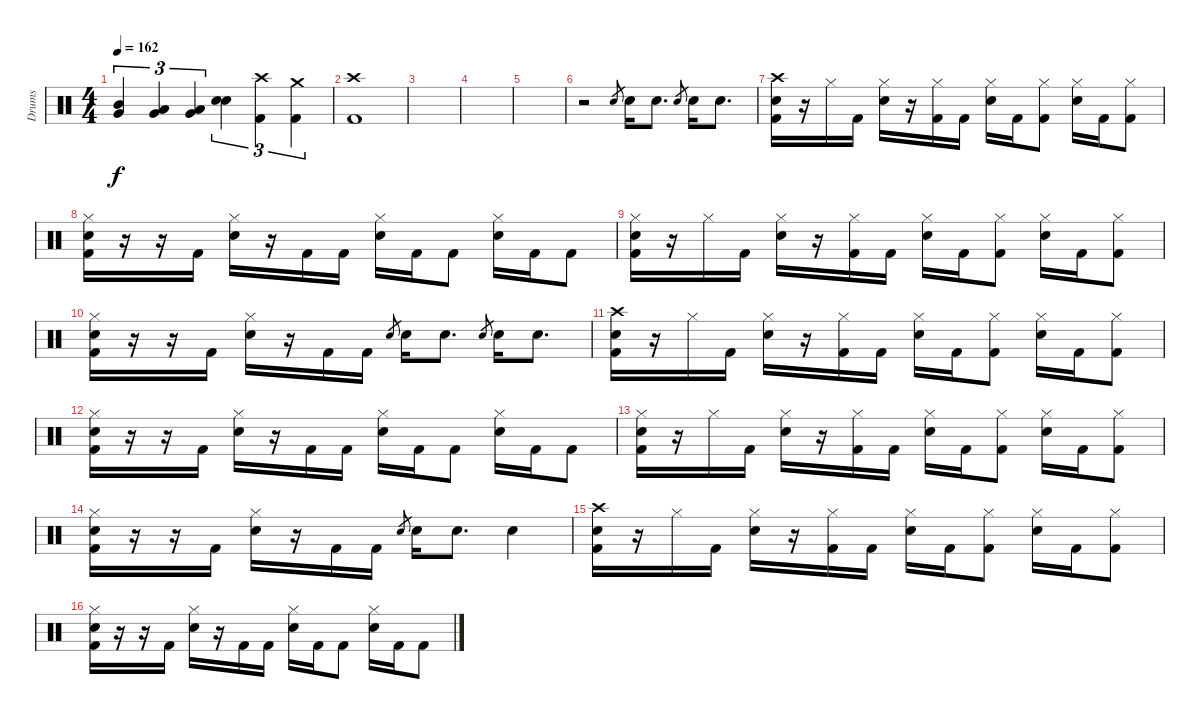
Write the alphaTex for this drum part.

\track ("Drums" "Drums") {instrument percussion}
\staff {score}
\articulation defaults
\ts (4 4)
\tempo 162
\clef neutral
\ks c
("Very Low Tom (hit)" "Mid Tom (hit)").4{tu (3 2) dy f} ("Low Tom (hit)" "Very Low Tom (hit)").4{tu (3 2)} ("Low Floor Tom (hit)" "Very Low Tom (hit)").4{tu (3 2)} ("Snare (hit) 2" "Snare (hit) 2").4{tu (3 2)} ("Crash high (hit)" "Kick (hit) 2").4{tu (3 2)} ("Crash medium (hit)" "Kick (hit) 2").4{tu (3 2)} |
("Crash high (hit)" "Kick (hit) 2").1 |
|
|
|
r.2 "Snare (hit) 2".8{gr} "Snare (hit) 2".16 "Snare (hit) 2".8{d} "Snare (hit) 2".8{gr} "Snare (hit) 2".16 "Snare (hit) 2".8{d} |
("Crash high (hit)" "Snare (hit) 2" "Kick (hit) 2").16 r.16 "Hi-Hat (closed)".16 "Kick (hit) 2".16 ("Hi-Hat (closed)" "Snare (hit) 2").16 r.16 ("Hi-Hat (closed)" "Kick (hit) 2").16 "Kick (hit) 2".16 ("Hi-Hat (closed)" "Snare (hit) 2").16 "Kick (hit) 2".16 ("Hi-Hat (closed)" "Kick (hit) 2").8 ("Hi-Hat (closed)" "Snare (hit) 2").16 "Kick (hit) 2".16 ("Hi-Hat (closed)" "Kick (hit) 2").8 |
("Hi-Hat (closed)" "Snare (hit) 2" "Kick (hit) 2").16 r.16 r.16 "Kick (hit) 2".16 ("Hi-Hat (closed)" "Snare (hit) 2").16 r.16 "Kick (hit) 2".16 "Kick (hit) 2".16 ("Hi-Hat (closed)" "Snare (hit) 2").16 "Kick (hit) 2".16 "Kick (hit) 2".8 ("Hi-Hat (closed)" "Snare (hit) 2").16 "Kick (hit) 2".16 "Kick (hit) 2".8 |
("Hi-Hat (closed)" "Snare (hit) 2" "Kick (hit) 2").16 r.16 "Hi-Hat (closed)".16 "Kick (hit) 2".16 ("Hi-Hat (closed)" "Snare (hit) 2").16 r.16 ("Hi-Hat (closed)" "Kick (hit) 2").16 "Kick (hit) 2".16 ("Hi-Hat (closed)" "Snare (hit) 2").16 "Kick (hit) 2".16 ("Hi-Hat (closed)" "Kick (hit) 2").8 ("Hi-Hat (closed)" "Snare (hit) 2").16 "Kick (hit) 2".16 ("Hi-Hat (closed)" "Kick (hit) 2").8 |
("Hi-Hat (closed)" "Snare (hit) 2" "Kick (hit) 2").16 r.16 r.16 "Kick (hit) 2".16 ("Hi-Hat (closed)" "Snare (hit) 2").16 r.16 "Kick (hit) 2".16 "Kick (hit) 2".16 "Snare (hit) 2".8{gr} "Snare (hit) 2".16 "Snare (hit) 2".8{d} "Snare (hit) 2".8{gr} "Snare (hit) 2".16 "Snare (hit) 2".8{d} |
("Crash high (hit)" "Snare (hit) 2" "Kick (hit) 2").16 r.16 "Hi-Hat (closed)".16 "Kick (hit) 2".16 ("Hi-Hat (closed)" "Snare (hit) 2").16 r.16 ("Hi-Hat (closed)" "Kick (hit) 2").16 "Kick (hit) 2".16 ("Hi-Hat (closed)" "Snare (hit) 2").16 "Kick (hit) 2".16 ("Hi-Hat (closed)" "Kick (hit) 2").8 ("Hi-Hat (closed)" "Snare (hit) 2").16 "Kick (hit) 2".16 ("Hi-Hat (closed)" "Kick (hit) 2").8 |
("Hi-Hat (closed)" "Snare (hit) 2" "Kick (hit) 2").16 r.16 r.16 "Kick (hit) 2".16 ("Hi-Hat (closed)" "Snare (hit) 2").16 r.16 "Kick (hit) 2".16 "Kick (hit) 2".16 ("Hi-Hat (closed)" "Snare (hit) 2").16 "Kick (hit) 2".16 "Kick (hit) 2".8 ("Hi-Hat (closed)" "Snare (hit) 2").16 "Kick (hit) 2".16 "Kick (hit) 2".8 |
("Hi-Hat (closed)" "Snare (hit) 2" "Kick (hit) 2").16 r.16 "Hi-Hat (closed)".16 "Kick (hit) 2".16 ("Hi-Hat (closed)" "Snare (hit) 2").16 r.16 ("Hi-Hat (closed)" "Kick (hit) 2").16 "Kick (hit) 2".16 ("Hi-Hat (closed)" "Snare (hit) 2").16 "Kick (hit) 2".16 ("Hi-Hat (closed)" "Kick (hit) 2").8 ("Hi-Hat (closed)" "Snare (hit) 2").16 "Kick (hit) 2".16 ("Hi-Hat (closed)" "Kick (hit) 2").8 |
("Hi-Hat (closed)" "Snare (hit) 2" "Kick (hit) 2").16 r.16 r.16 "Kick (hit) 2".16 ("Hi-Hat (closed)" "Snare (hit) 2").16 r.16 "Kick (hit) 2".16 "Kick (hit) 2".16 "Snare (hit) 2".8{gr} "Snare (hit) 2".16 "Snare (hit) 2".8{d} "Snare (hit) 2".4 |
("Crash high (hit)" "Snare (hit) 2" "Kick (hit) 2").16 r.16 "Hi-Hat (closed)".16 "Kick (hit) 2".16 ("Hi-Hat (closed)" "Snare (hit) 2").16 r.16 ("Hi-Hat (closed)" "Kick (hit) 2").16 "Kick (hit) 2".16 ("Hi-Hat (closed)" "Snare (hit) 2").16 "Kick (hit) 2".16 ("Hi-Hat (closed)" "Kick (hit) 2").8 ("Hi-Hat (closed)" "Snare (hit) 2").16 "Kick (hit) 2".16 ("Hi-Hat (closed)" "Kick (hit) 2").8 |
("Hi-Hat (closed)" "Snare (hit) 2" "Kick (hit) 2").16 r.16 r.16 "Kick (hit) 2".16 ("Hi-Hat (closed)" "Snare (hit) 2").16 r.16 "Kick (hit) 2".16 "Kick (hit) 2".16 ("Hi-Hat (closed)" "Snare (hit) 2").16 "Kick (hit) 2".16 "Kick (hit) 2".8 ("Hi-Hat (closed)" "Snare (hit) 2").16 "Kick (hit) 2".16 "Kick (hit) 2".8
